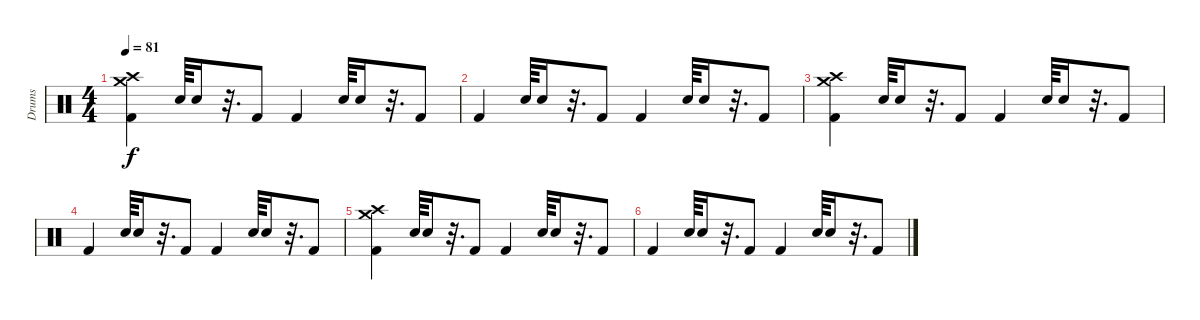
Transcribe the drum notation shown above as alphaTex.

\track ("Drums" "Drums") {instrument percussion}
\staff {score}
\articulation defaults
\ts (4 4)
\tempo 81
\clef neutral
\ks c
("Crash medium (hit)" "Crash high (hit)" "Kick (hit) 2").4{dy f volume 8} "Electric Snare (hit)".64 "Electric Snare (hit)".16 r.32{d} "Kick (hit) 2".8 "Kick (hit) 2".4 "Electric Snare (hit)".64 "Electric Snare (hit)".16 r.32{d} "Kick (hit) 2".8 |
"Kick (hit) 2".4 "Electric Snare (hit)".64 "Electric Snare (hit)".16 r.32{d} "Kick (hit) 2".8 "Kick (hit) 2".4 "Electric Snare (hit)".64 "Electric Snare (hit)".16 r.32{d} "Kick (hit) 2".8 |
("Crash medium (hit)" "Crash high (hit)" "Kick (hit) 2").4{volume 4} "Electric Snare (hit)".64 "Electric Snare (hit)".16 r.32{d} "Kick (hit) 2".8 "Kick (hit) 2".4 "Electric Snare (hit)".64 "Electric Snare (hit)".16 r.32{d} "Kick (hit) 2".8 |
"Kick (hit) 2".4 "Electric Snare (hit)".64 "Electric Snare (hit)".16 r.32{d} "Kick (hit) 2".8 "Kick (hit) 2".4 "Electric Snare (hit)".64 "Electric Snare (hit)".16 r.32{d} "Kick (hit) 2".8 |
("Crash medium (hit)" "Crash high (hit)" "Kick (hit) 2").4{volume 0} "Electric Snare (hit)".64 "Electric Snare (hit)".16 r.32{d} "Kick (hit) 2".8 "Kick (hit) 2".4 "Electric Snare (hit)".64 "Electric Snare (hit)".16 r.32{d} "Kick (hit) 2".8 |
"Kick (hit) 2".4 "Electric Snare (hit)".64 "Electric Snare (hit)".16 r.32{d} "Kick (hit) 2".8 "Kick (hit) 2".4 "Electric Snare (hit)".64 "Electric Snare (hit)".16 r.32{d} "Kick (hit) 2".8
